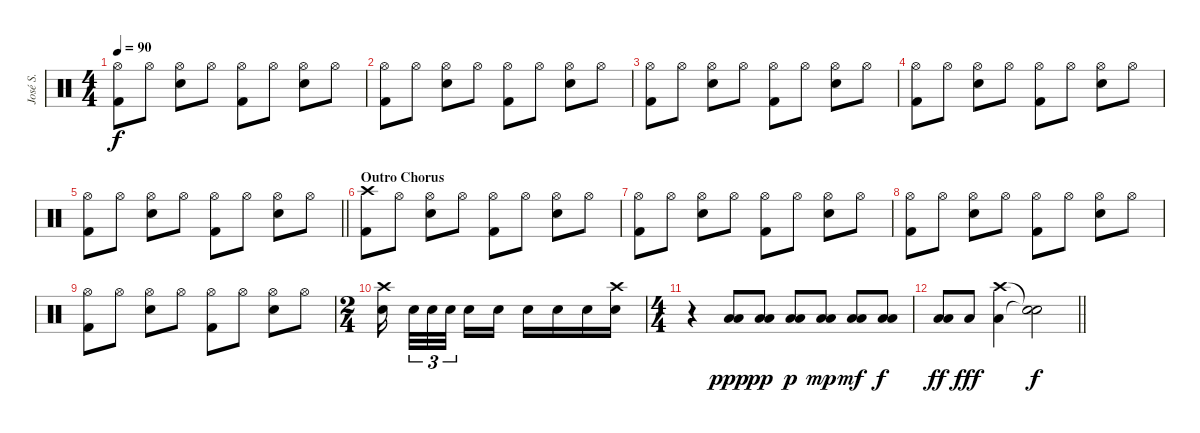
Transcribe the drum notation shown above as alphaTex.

\track ("José S." "José S.") {instrument percussion}
\staff {score}
\articulation defaults
\ts (4 4)
\tempo 90
\clef neutral
\ks c
("Hi-Hat (open)" "Kick (hit) 2").8{dy f} "Hi-Hat (open)".8 ("Hi-Hat (open)" "Electric Snare (hit)").8 "Hi-Hat (open)".8 ("Hi-Hat (open)" "Kick (hit) 2").8 "Hi-Hat (open)".8 ("Hi-Hat (open)" "Electric Snare (hit)").8 "Hi-Hat (open)".8 |
("Hi-Hat (open)" "Kick (hit) 2").8 "Hi-Hat (open)".8 ("Hi-Hat (open)" "Electric Snare (hit)").8 "Hi-Hat (open)".8 ("Hi-Hat (open)" "Kick (hit) 2").8 "Hi-Hat (open)".8 ("Hi-Hat (open)" "Electric Snare (hit)").8 "Hi-Hat (open)".8 |
("Hi-Hat (open)" "Kick (hit) 2").8 "Hi-Hat (open)".8 ("Hi-Hat (open)" "Electric Snare (hit)").8 "Hi-Hat (open)".8 ("Hi-Hat (open)" "Kick (hit) 2").8 "Hi-Hat (open)".8 ("Hi-Hat (open)" "Electric Snare (hit)").8 "Hi-Hat (open)".8 |
("Hi-Hat (open)" "Kick (hit) 2").8 "Hi-Hat (open)".8 ("Hi-Hat (open)" "Electric Snare (hit)").8 "Hi-Hat (open)".8 ("Hi-Hat (open)" "Kick (hit) 2").8 "Hi-Hat (open)".8 ("Hi-Hat (open)" "Electric Snare (hit)").8 "Hi-Hat (open)".8 |
\barLineRight lightlight
("Hi-Hat (open)" "Kick (hit) 2").8 "Hi-Hat (open)".8 ("Hi-Hat (open)" "Electric Snare (hit)").8 "Hi-Hat (open)".8 ("Hi-Hat (open)" "Kick (hit) 2").8 "Hi-Hat (open)".8 ("Hi-Hat (open)" "Electric Snare (hit)").8 "Hi-Hat (open)".8 |
\section ("" "Outro Chorus")
("Crash high (hit)" "Kick (hit) 2").8 "Hi-Hat (open)".8 ("Hi-Hat (open)" "Electric Snare (hit)").8 "Hi-Hat (open)".8 ("Hi-Hat (open)" "Kick (hit) 2").8 "Hi-Hat (open)".8 ("Hi-Hat (open)" "Electric Snare (hit)").8 "Hi-Hat (open)".8 |
("Hi-Hat (open)" "Kick (hit) 2").8 "Hi-Hat (open)".8 ("Hi-Hat (open)" "Electric Snare (hit)").8 "Hi-Hat (open)".8 ("Hi-Hat (open)" "Kick (hit) 2").8 "Hi-Hat (open)".8 ("Hi-Hat (open)" "Electric Snare (hit)").8 "Hi-Hat (open)".8 |
("Hi-Hat (open)" "Kick (hit) 2").8 "Hi-Hat (open)".8 ("Hi-Hat (open)" "Electric Snare (hit)").8 "Hi-Hat (open)".8 ("Hi-Hat (open)" "Kick (hit) 2").8 "Hi-Hat (open)".8 ("Hi-Hat (open)" "Electric Snare (hit)").8 "Hi-Hat (open)".8 |
("Hi-Hat (open)" "Kick (hit) 2").8 "Hi-Hat (open)".8 ("Hi-Hat (open)" "Electric Snare (hit)").8 "Hi-Hat (open)".8 ("Hi-Hat (open)" "Kick (hit) 2").8 "Hi-Hat (open)".8 ("Hi-Hat (open)" "Electric Snare (hit)").8 "Hi-Hat (open)".8 |
\ts (2 4)
("Crash high (hit)" "Electric Snare (hit)").16{beam splitsecondary} "Electric Snare (hit)".32{tu (3 2)} "Electric Snare (hit)".32{tu (3 2)} "Electric Snare (hit)".32{tu (3 2) beam splitsecondary} "Electric Snare (hit)".16 "Electric Snare (hit)".16 "Electric Snare (hit)".16 "Electric Snare (hit)".16 "Electric Snare (hit)".16 ("Crash high (hit)" "Electric Snare (hit)").16 |
\ts (4 4)
r.4 ("Low Tom (hit)" "Low Floor Tom (hit)").8{dy ppp} ("Low Tom (hit)" "Low Floor Tom (hit)").8{dy pp} ("Low Tom (hit)" "Low Floor Tom (hit)").8{dy p} ("Low Tom (hit)" "Low Floor Tom (hit)").8{dy mp} ("Low Tom (hit)" "Low Floor Tom (hit)").8{dy mf} ("Low Tom (hit)" "Low Floor Tom (hit)").8{dy f} |
\barLineRight lightlight
("Low Tom (hit)" "Low Floor Tom (hit)").8{dy ff} "Low Floor Tom (hit)".8{dy fff} ("Crash high (hit)" "Low Floor Tom (hit)").4 ("Snare (hit)"{t} "Snare (hit)"{t}).2{dy f}
